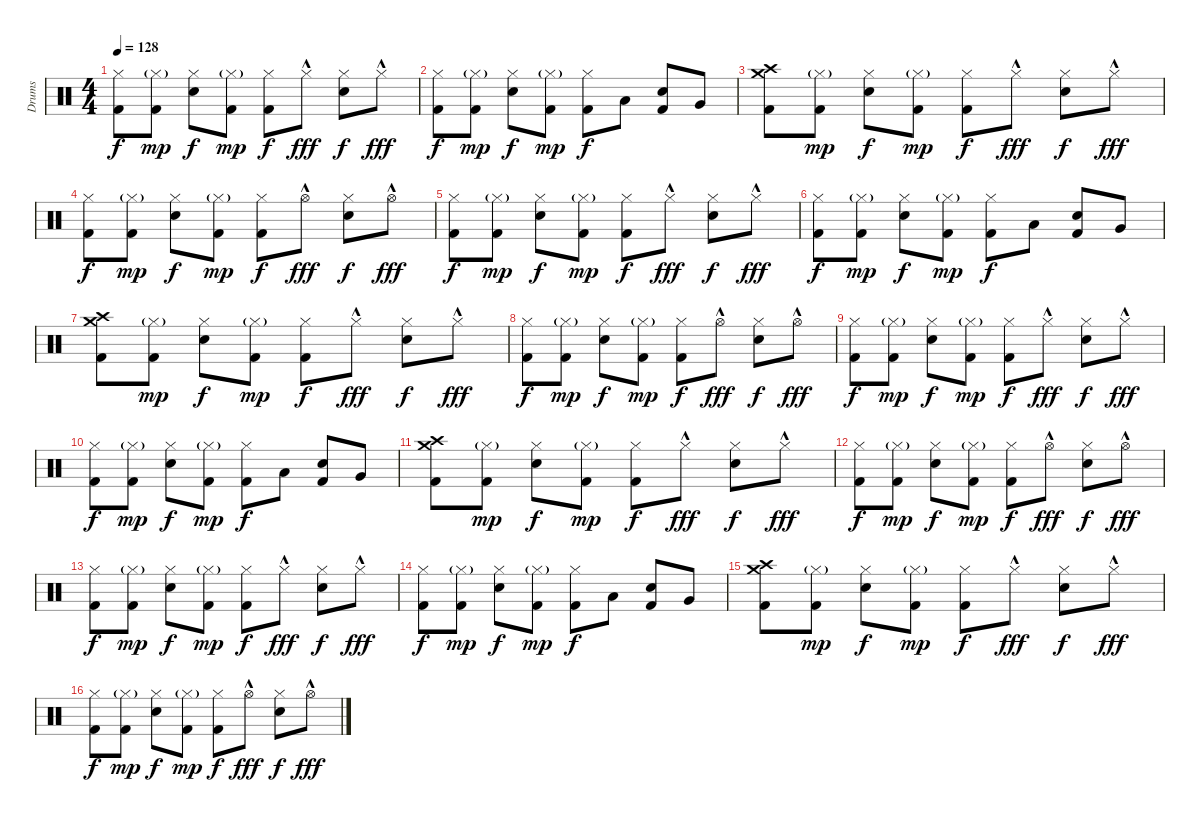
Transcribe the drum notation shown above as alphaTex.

\track ("Drums" "Drums") {instrument percussion}
\staff {score}
\articulation defaults
\ts (4 4)
\tempo 128
\clef neutral
\ks c
("Hi-Hat (closed)" "Kick (hit) 2").8{dy f} ("Hi-Hat (closed)"{g} "Kick (hit) 2").8{dy mp} ("Hi-Hat (closed)" "Snare (hit) 2").8{dy f} ("Hi-Hat (closed)"{g} "Kick (hit) 2").8{dy mp} ("Hi-Hat (closed)" "Kick (hit) 2").8{dy f} "Hi-Hat (closed)"{hac}.8{dy fff} ("Hi-Hat (closed)" "Snare (hit) 2").8{dy f} "Hi-Hat (closed)"{hac}.8{dy fff} |
("Hi-Hat (closed)" "Kick (hit) 2").8{dy f} ("Hi-Hat (closed)"{g} "Kick (hit) 2").8{dy mp} ("Hi-Hat (closed)" "Snare (hit) 2").8{dy f} ("Hi-Hat (closed)"{g} "Kick (hit) 2").8{dy mp} ("Hi-Hat (closed)" "Kick (hit) 2").8{dy f} "Low Tom (hit)".8 ("Snare (hit) 2" "Kick (hit) 2").8 "Very Low Tom (hit)".8 |
("Crash medium (hit)" "Crash high (hit)" "Kick (hit) 2").8 ("Hi-Hat (closed)"{g} "Kick (hit) 2").8{dy mp} ("Hi-Hat (closed)" "Snare (hit) 2").8{dy f} ("Hi-Hat (closed)"{g} "Kick (hit) 2").8{dy mp} ("Hi-Hat (closed)" "Kick (hit) 2").8{dy f} "Hi-Hat (closed)"{hac}.8{dy fff} ("Hi-Hat (closed)" "Snare (hit) 2").8{dy f} "Hi-Hat (closed)"{hac}.8{dy fff} |
("Hi-Hat (closed)" "Kick (hit) 2").8{dy f} ("Hi-Hat (closed)"{g} "Kick (hit) 2").8{dy mp} ("Hi-Hat (closed)" "Snare (hit) 2").8{dy f} ("Hi-Hat (closed)"{g} "Kick (hit) 2").8{dy mp} ("Hi-Hat (closed)" "Kick (hit) 2").8{dy f} "Hi-Hat (open)"{hac}.8{dy fff} ("Hi-Hat (closed)" "Snare (hit) 2").8{dy f} "Hi-Hat (open)"{hac}.8{dy fff} |
("Hi-Hat (closed)" "Kick (hit) 2").8{dy f} ("Hi-Hat (closed)"{g} "Kick (hit) 2").8{dy mp} ("Hi-Hat (closed)" "Snare (hit) 2").8{dy f} ("Hi-Hat (closed)"{g} "Kick (hit) 2").8{dy mp} ("Hi-Hat (closed)" "Kick (hit) 2").8{dy f} "Hi-Hat (closed)"{hac}.8{dy fff} ("Hi-Hat (closed)" "Snare (hit) 2").8{dy f} "Hi-Hat (closed)"{hac}.8{dy fff} |
("Hi-Hat (closed)" "Kick (hit) 2").8{dy f} ("Hi-Hat (closed)"{g} "Kick (hit) 2").8{dy mp} ("Hi-Hat (closed)" "Snare (hit) 2").8{dy f} ("Hi-Hat (closed)"{g} "Kick (hit) 2").8{dy mp} ("Hi-Hat (closed)" "Kick (hit) 2").8{dy f} "Low Tom (hit)".8 ("Snare (hit) 2" "Kick (hit) 2").8 "Very Low Tom (hit)".8 |
("Crash medium (hit)" "Crash high (hit)" "Kick (hit) 2").8 ("Hi-Hat (closed)"{g} "Kick (hit) 2").8{dy mp} ("Hi-Hat (closed)" "Snare (hit) 2").8{dy f} ("Hi-Hat (closed)"{g} "Kick (hit) 2").8{dy mp} ("Hi-Hat (closed)" "Kick (hit) 2").8{dy f} "Hi-Hat (closed)"{hac}.8{dy fff} ("Hi-Hat (closed)" "Snare (hit) 2").8{dy f} "Hi-Hat (closed)"{hac}.8{dy fff} |
("Hi-Hat (closed)" "Kick (hit) 2").8{dy f} ("Hi-Hat (closed)"{g} "Kick (hit) 2").8{dy mp} ("Hi-Hat (closed)" "Snare (hit) 2").8{dy f} ("Hi-Hat (closed)"{g} "Kick (hit) 2").8{dy mp} ("Hi-Hat (closed)" "Kick (hit) 2").8{dy f} "Hi-Hat (open)"{hac}.8{dy fff} ("Hi-Hat (closed)" "Snare (hit) 2").8{dy f} "Hi-Hat (open)"{hac}.8{dy fff} |
("Hi-Hat (closed)" "Kick (hit) 2").8{dy f} ("Hi-Hat (closed)"{g} "Kick (hit) 2").8{dy mp} ("Hi-Hat (closed)" "Snare (hit) 2").8{dy f} ("Hi-Hat (closed)"{g} "Kick (hit) 2").8{dy mp} ("Hi-Hat (closed)" "Kick (hit) 2").8{dy f} "Hi-Hat (closed)"{hac}.8{dy fff} ("Hi-Hat (closed)" "Snare (hit) 2").8{dy f} "Hi-Hat (closed)"{hac}.8{dy fff} |
("Hi-Hat (closed)" "Kick (hit) 2").8{dy f} ("Hi-Hat (closed)"{g} "Kick (hit) 2").8{dy mp} ("Hi-Hat (closed)" "Snare (hit) 2").8{dy f} ("Hi-Hat (closed)"{g} "Kick (hit) 2").8{dy mp} ("Hi-Hat (closed)" "Kick (hit) 2").8{dy f} "Low Tom (hit)".8 ("Snare (hit) 2" "Kick (hit) 2").8 "Very Low Tom (hit)".8 |
("Crash medium (hit)" "Crash high (hit)" "Kick (hit) 2").8{volume 7} ("Hi-Hat (closed)"{g} "Kick (hit) 2").8{dy mp} ("Hi-Hat (closed)" "Snare (hit) 2").8{dy f} ("Hi-Hat (closed)"{g} "Kick (hit) 2").8{dy mp} ("Hi-Hat (closed)" "Kick (hit) 2").8{dy f} "Hi-Hat (closed)"{hac}.8{dy fff} ("Hi-Hat (closed)" "Snare (hit) 2").8{dy f} "Hi-Hat (closed)"{hac}.8{dy fff} |
("Hi-Hat (closed)" "Kick (hit) 2").8{dy f} ("Hi-Hat (closed)"{g} "Kick (hit) 2").8{dy mp} ("Hi-Hat (closed)" "Snare (hit) 2").8{dy f} ("Hi-Hat (closed)"{g} "Kick (hit) 2").8{dy mp} ("Hi-Hat (closed)" "Kick (hit) 2").8{dy f} "Hi-Hat (open)"{hac}.8{dy fff} ("Hi-Hat (closed)" "Snare (hit) 2").8{dy f} "Hi-Hat (open)"{hac}.8{dy fff} |
("Hi-Hat (closed)" "Kick (hit) 2").8{dy f} ("Hi-Hat (closed)"{g} "Kick (hit) 2").8{dy mp} ("Hi-Hat (closed)" "Snare (hit) 2").8{dy f} ("Hi-Hat (closed)"{g} "Kick (hit) 2").8{dy mp} ("Hi-Hat (closed)" "Kick (hit) 2").8{dy f} "Hi-Hat (closed)"{hac}.8{dy fff} ("Hi-Hat (closed)" "Snare (hit) 2").8{dy f} "Hi-Hat (closed)"{hac}.8{dy fff} |
("Hi-Hat (closed)" "Kick (hit) 2").8{dy f} ("Hi-Hat (closed)"{g} "Kick (hit) 2").8{dy mp} ("Hi-Hat (closed)" "Snare (hit) 2").8{dy f} ("Hi-Hat (closed)"{g} "Kick (hit) 2").8{dy mp} ("Hi-Hat (closed)" "Kick (hit) 2").8{dy f} "Low Tom (hit)".8 ("Snare (hit) 2" "Kick (hit) 2").8 "Very Low Tom (hit)".8 |
("Crash medium (hit)" "Crash high (hit)" "Kick (hit) 2").8{volume 0} ("Hi-Hat (closed)"{g} "Kick (hit) 2").8{dy mp} ("Hi-Hat (closed)" "Snare (hit) 2").8{dy f} ("Hi-Hat (closed)"{g} "Kick (hit) 2").8{dy mp} ("Hi-Hat (closed)" "Kick (hit) 2").8{dy f} "Hi-Hat (closed)"{hac}.8{dy fff} ("Hi-Hat (closed)" "Snare (hit) 2").8{dy f} "Hi-Hat (closed)"{hac}.8{dy fff} |
("Hi-Hat (closed)" "Kick (hit) 2").8{dy f} ("Hi-Hat (closed)"{g} "Kick (hit) 2").8{dy mp} ("Hi-Hat (closed)" "Snare (hit) 2").8{dy f} ("Hi-Hat (closed)"{g} "Kick (hit) 2").8{dy mp} ("Hi-Hat (closed)" "Kick (hit) 2").8{dy f} "Hi-Hat (open)"{hac}.8{dy fff} ("Hi-Hat (closed)" "Snare (hit) 2").8{dy f} "Hi-Hat (open)"{hac}.8{dy fff}
